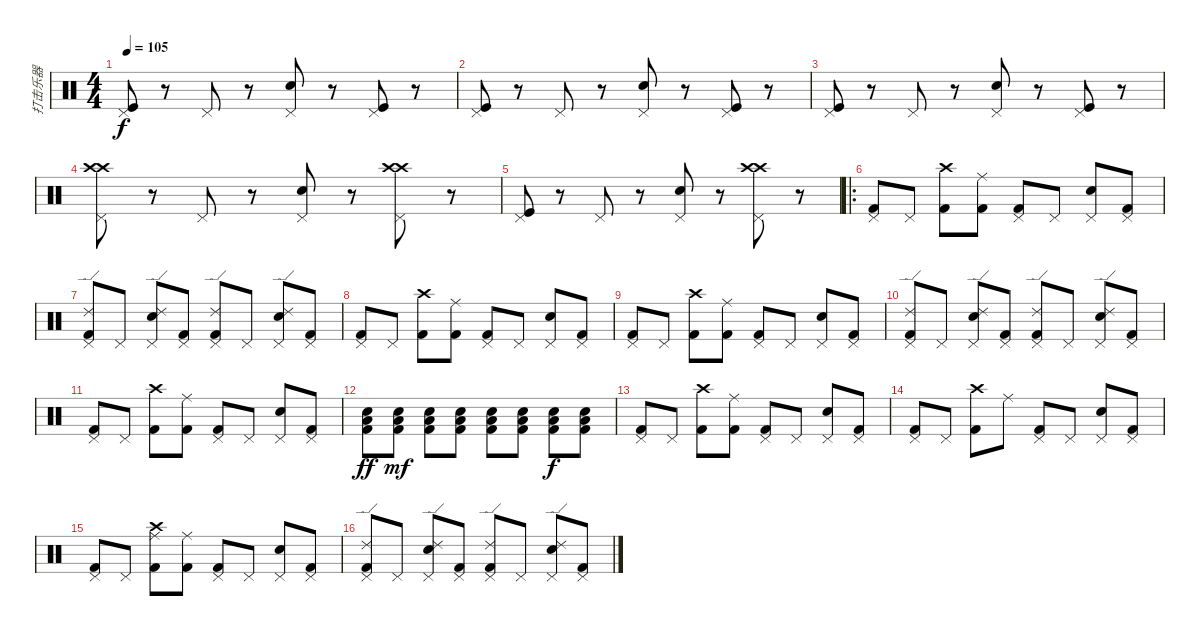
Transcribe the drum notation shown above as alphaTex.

\track ("打击乐器" "打击乐器") {instrument percussion}
\staff {score}
\articulation defaults
\ts (4 4)
\tempo 105
\clef neutral
\ks c
("Kick (hit)" "Pedal Hi-Hat (hit)").8{dy f} r.8 "Pedal Hi-Hat (hit)".8 r.8 ("Snare (hit) 2" "Pedal Hi-Hat (hit)").8 r.8 ("Kick (hit)" "Pedal Hi-Hat (hit)").8 r.8 |
("Kick (hit)" "Pedal Hi-Hat (hit)").8 r.8 "Pedal Hi-Hat (hit)".8 r.8 ("Snare (hit) 2" "Pedal Hi-Hat (hit)").8 r.8 ("Kick (hit)" "Pedal Hi-Hat (hit)").8 r.8 |
("Kick (hit)" "Pedal Hi-Hat (hit)").8 r.8 "Pedal Hi-Hat (hit)".8 r.8 ("Snare (hit) 2" "Pedal Hi-Hat (hit)").8 r.8 ("Kick (hit)" "Pedal Hi-Hat (hit)").8 r.8 |
("Crash high (hit)" "Pedal Hi-Hat (hit)" "Crash high (hit)").8 r.8 "Pedal Hi-Hat (hit)".8 r.8 ("Snare (hit) 2" "Pedal Hi-Hat (hit)").8 r.8 ("Crash high (hit)" "Pedal Hi-Hat (hit)" "Crash high (hit)").8 r.8 |
("Kick (hit)" "Pedal Hi-Hat (hit)").8 r.8 "Pedal Hi-Hat (hit)".8 r.8 ("Snare (hit) 2" "Pedal Hi-Hat (hit)").8 r.8 ("Crash high (hit)" "Pedal Hi-Hat (hit)" "Crash high (hit)").8 r.8 |
\ro
("Pedal Hi-Hat (hit)" "Kick (hit) 2").8 "Pedal Hi-Hat (hit)".8 ("Crash high (hit)" "Kick (hit) 2").8 ("Ride (middle)" "Kick (hit) 2").8 ("Pedal Hi-Hat (hit)" "Kick (hit) 2").8 "Pedal Hi-Hat (hit)".8 ("Pedal Hi-Hat (hit)" "Snare (hit) 2").8 ("Pedal Hi-Hat (hit)" "Kick (hit) 2").8 |
("Ride (edge) 2" "Pedal Hi-Hat (hit)" "Kick (hit) 2").8 "Pedal Hi-Hat (hit)".8 ("Ride (edge) 2" "Pedal Hi-Hat (hit)" "Snare (hit) 2").8 ("Pedal Hi-Hat (hit)" "Kick (hit) 2").8 ("Ride (edge) 2" "Pedal Hi-Hat (hit)" "Kick (hit) 2").8 "Pedal Hi-Hat (hit)".8 ("Ride (edge) 2" "Pedal Hi-Hat (hit)" "Snare (hit) 2").8 ("Pedal Hi-Hat (hit)" "Kick (hit) 2").8 |
("Pedal Hi-Hat (hit)" "Kick (hit) 2").8 "Pedal Hi-Hat (hit)".8 ("Crash high (hit)" "Kick (hit) 2").8 ("Ride (middle)" "Kick (hit) 2").8 ("Pedal Hi-Hat (hit)" "Kick (hit) 2").8 "Pedal Hi-Hat (hit)".8 ("Pedal Hi-Hat (hit)" "Snare (hit) 2").8 ("Pedal Hi-Hat (hit)" "Kick (hit) 2").8 |
("Pedal Hi-Hat (hit)" "Kick (hit) 2").8 "Pedal Hi-Hat (hit)".8 ("Crash high (hit)" "Kick (hit) 2").8 ("Ride (middle)" "Kick (hit) 2").8 ("Pedal Hi-Hat (hit)" "Kick (hit) 2").8 "Pedal Hi-Hat (hit)".8 ("Pedal Hi-Hat (hit)" "Snare (hit) 2").8 ("Pedal Hi-Hat (hit)" "Kick (hit) 2").8 |
("Ride (edge) 2" "Pedal Hi-Hat (hit)" "Kick (hit) 2").8 "Pedal Hi-Hat (hit)".8 ("Ride (edge) 2" "Pedal Hi-Hat (hit)" "Snare (hit) 2").8 ("Pedal Hi-Hat (hit)" "Kick (hit) 2").8 ("Ride (edge) 2" "Pedal Hi-Hat (hit)" "Kick (hit) 2").8 "Pedal Hi-Hat (hit)".8 ("Ride (edge) 2" "Pedal Hi-Hat (hit)" "Snare (hit) 2").8 ("Pedal Hi-Hat (hit)" "Kick (hit) 2").8 |
("Pedal Hi-Hat (hit)" "Kick (hit) 2").8 "Pedal Hi-Hat (hit)".8 ("Crash high (hit)" "Kick (hit) 2").8 ("Ride (middle)" "Kick (hit) 2").8 ("Pedal Hi-Hat (hit)" "Kick (hit) 2").8 "Pedal Hi-Hat (hit)".8 ("Pedal Hi-Hat (hit)" "Snare (hit) 2").8 ("Pedal Hi-Hat (hit)" "Kick (hit) 2").8 |
("Low Tom (hit)" "Snare (hit) 2" "Kick (hit) 2").8{dy ff} ("Kick (hit) 2" "Snare (hit) 2" "Low Tom (hit)").8{dy mf} ("Kick (hit) 2" "Snare (hit) 2" "Low Tom (hit)").8 ("Kick (hit) 2" "Snare (hit) 2" "Low Tom (hit)").8 ("Kick (hit) 2" "Snare (hit) 2" "Low Tom (hit)").8 ("Kick (hit) 2" "Snare (hit) 2" "Low Tom (hit)").8 ("Kick (hit) 2" "Snare (hit) 2" "Low Tom (hit)").8{dy f} ("Kick (hit) 2" "Snare (hit) 2" "Low Tom (hit)").8 |
("Pedal Hi-Hat (hit)" "Kick (hit) 2").8 "Pedal Hi-Hat (hit)".8 ("Crash high (hit)" "Kick (hit) 2").8 ("Ride (middle)" "Kick (hit) 2").8 ("Pedal Hi-Hat (hit)" "Kick (hit) 2").8 "Pedal Hi-Hat (hit)".8 ("Pedal Hi-Hat (hit)" "Snare (hit) 2").8 ("Pedal Hi-Hat (hit)" "Kick (hit) 2").8 |
("Pedal Hi-Hat (hit)" "Kick (hit) 2").8 "Pedal Hi-Hat (hit)".8 ("Crash high (hit)" "Kick (hit) 2").8 "Ride (middle)".8 ("Pedal Hi-Hat (hit)" "Kick (hit) 2").8 "Pedal Hi-Hat (hit)".8 ("Pedal Hi-Hat (hit)" "Snare (hit) 2").8 ("Pedal Hi-Hat (hit)" "Kick (hit) 2").8 |
("Pedal Hi-Hat (hit)" "Kick (hit) 2").8 "Pedal Hi-Hat (hit)".8 ("Crash high (hit)" "Kick (hit) 2" "Ride (middle)").8 ("Ride (middle)" "Kick (hit) 2").8 ("Pedal Hi-Hat (hit)" "Kick (hit) 2").8 "Pedal Hi-Hat (hit)".8 ("Pedal Hi-Hat (hit)" "Snare (hit) 2").8 ("Pedal Hi-Hat (hit)" "Kick (hit) 2").8 |
("Ride (edge) 2" "Pedal Hi-Hat (hit)" "Kick (hit) 2").8 "Pedal Hi-Hat (hit)".8 ("Ride (edge) 2" "Pedal Hi-Hat (hit)" "Snare (hit) 2").8 ("Pedal Hi-Hat (hit)" "Kick (hit) 2").8 ("Ride (edge) 2" "Pedal Hi-Hat (hit)" "Kick (hit) 2").8 "Pedal Hi-Hat (hit)".8 ("Ride (edge) 2" "Pedal Hi-Hat (hit)" "Snare (hit) 2").8 ("Pedal Hi-Hat (hit)" "Kick (hit) 2").8
